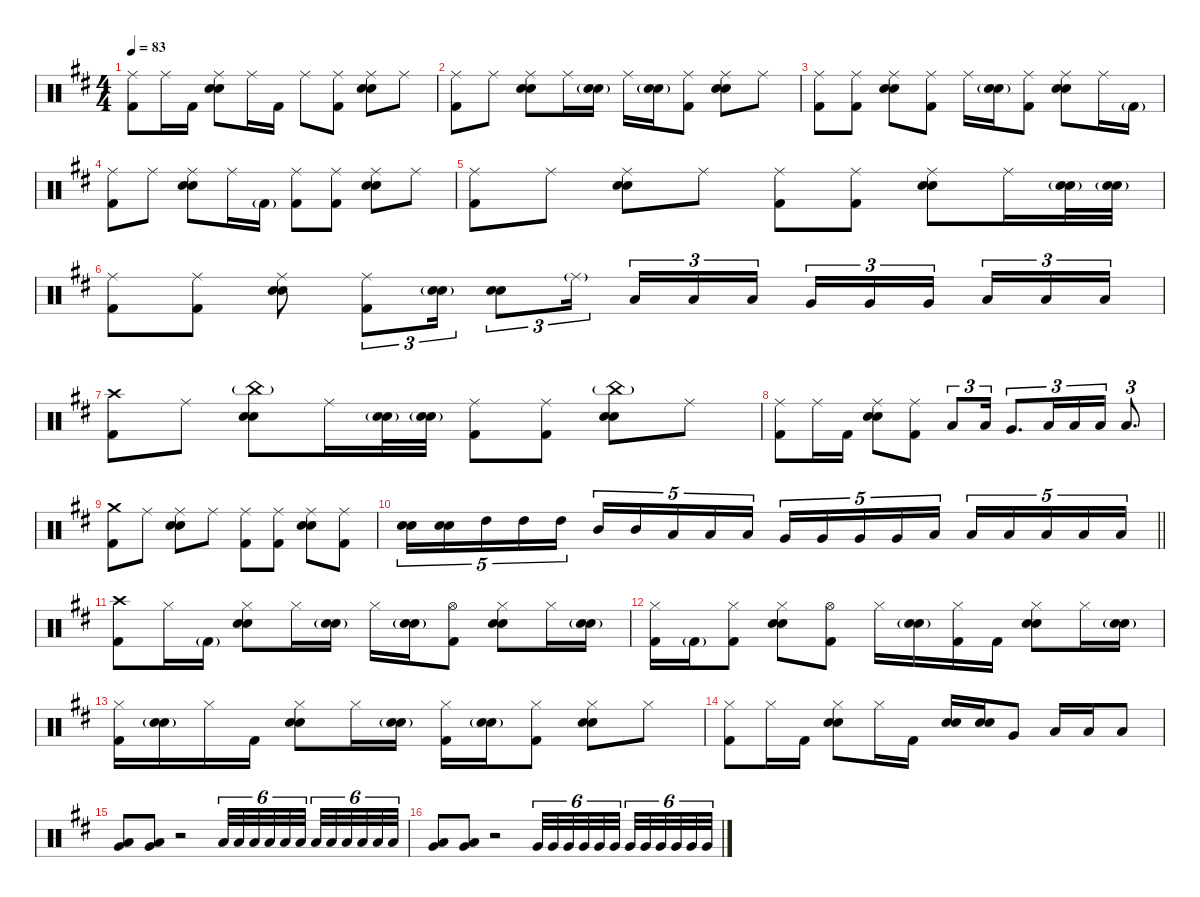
\defaultSystemsLayout 4
\hideDynamics
\bracketExtendMode nobrackets
\singleTrackTrackNamePolicy hidden
\multiTrackTrackNamePolicy hidden
\firstSystemTrackNameMode fullname
\firstSystemTrackNameOrientation horizontal
\otherSystemsTrackNameOrientation horizontal
\track ("Batterie" "drm.") {defaultSystemsLayout 4 instrument percussion}
\staff {score}
\articulation defaults
\ts (4 4)
\tempo 83
\clef neutral
\ks bminor
("Ride (middle)"{acc forcenatural} "Kick (hit) 2"{acc forcenatural}).8{dy f beam Down} "Ride (middle)"{acc forcenatural}.16{beam Down} "Kick (hit) 2"{acc forcenatural}.16{dy mf beam Down} ("Ride (middle)"{acc forcenatural} "Snare (hit) 2"{acc forcenatural} "Snare (hit) 2"{acc forcenatural}).8{dy f beam Down} "Ride (middle)"{acc forcenatural}.16{beam Down} "Kick (hit) 2"{acc forcenatural}.16{dy mf beam Down} "Ride (middle)"{acc forcenatural}.8{dy f beam Down} ("Ride (middle)"{acc forcenatural} "Kick (hit) 2"{acc forcenatural}).8{beam Down} ("Ride (middle)"{acc forcenatural} "Snare (hit) 2"{acc forcenatural} "Snare (hit) 2"{acc forcenatural}).8{beam Down} "Ride (middle)"{acc forcenatural}.8{beam Down} |
("Ride (middle)"{acc forcenatural} "Kick (hit) 2"{acc forcenatural}).8{beam Down} "Ride (middle)"{acc forcenatural}.8{beam Down} ("Ride (middle)"{acc forcenatural} "Snare (hit) 2"{acc forcenatural} "Snare (hit) 2"{acc forcenatural}).8{beam Down} "Ride (middle)"{acc forcenatural}.16{beam Down} ("Snare (hit) 2"{g acc forcenatural} "Snare (hit) 2"{g acc forcenatural}).16{dy mf beam Down} "Ride (middle)"{acc forcenatural}.16{dy f beam Down} ("Snare (hit) 2"{g acc forcenatural} "Snare (hit) 2"{g acc forcenatural}).16{dy mp beam Down} ("Ride (middle)"{acc forcenatural} "Kick (hit) 2"{acc forcenatural}).8{dy f beam Down} ("Ride (middle)"{acc forcenatural} "Snare (hit) 2"{acc forcenatural} "Snare (hit) 2"{acc forcenatural}).8{beam Down} "Ride (middle)"{acc forcenatural}.8{beam Down} |
("Ride (middle)"{acc forcenatural} "Kick (hit) 2"{acc forcenatural}).8{beam Down} ("Ride (middle)"{acc forcenatural} "Kick (hit) 2"{acc forcenatural}).8{beam Down} ("Ride (middle)"{acc forcenatural} "Snare (hit) 2"{acc forcenatural} "Snare (hit) 2"{acc forcenatural}).8{beam Down} ("Ride (middle)"{acc forcenatural} "Kick (hit) 2"{acc forcenatural}).8{beam Down} "Ride (middle)"{acc forcenatural}.16{beam Down} ("Snare (hit) 2"{g acc forcenatural} "Snare (hit) 2"{g acc forcenatural}).16{dy mp beam Down} ("Ride (middle)"{acc forcenatural} "Kick (hit) 2"{acc forcenatural}).8{dy f beam Down} ("Ride (middle)"{acc forcenatural} "Snare (hit) 2"{acc forcenatural} "Snare (hit) 2"{acc forcenatural}).8{beam Down} "Ride (middle)"{acc forcenatural}.16{beam Down} "Kick (hit) 2"{g acc forcenatural}.16{beam Down} |
("Ride (middle)"{acc forcenatural} "Kick (hit) 2"{acc forcenatural}).8{beam Down} "Ride (middle)"{acc forcenatural}.8{beam Down} ("Ride (middle)"{acc forcenatural} "Snare (hit) 2"{acc forcenatural} "Snare (hit) 2"{acc forcenatural}).8{beam Down} "Ride (middle)"{acc forcenatural}.16{beam Down} "Kick (hit) 2"{g acc forcenatural}.16{dy mf beam Down} ("Ride (middle)"{acc forcenatural} "Kick (hit) 2"{acc forcenatural}).8{dy f beam Down} ("Ride (middle)"{acc forcenatural} "Kick (hit) 2"{acc forcenatural}).8{beam Down} ("Ride (middle)"{acc forcenatural} "Snare (hit) 2"{acc forcenatural} "Snare (hit) 2"{acc forcenatural}).8{beam Down} "Ride (middle)"{acc forcenatural}.8{beam Down} |
("Ride (middle)"{acc forcenatural} "Kick (hit) 2"{acc forcenatural}).8{beam Down} "Ride (middle)"{acc forcenatural}.8{beam Down} ("Ride (middle)"{acc forcenatural} "Snare (hit) 2"{acc forcenatural} "Snare (hit) 2"{acc forcenatural}).8{beam Down} "Ride (middle)"{acc forcenatural}.8{beam Down} ("Ride (middle)"{acc forcenatural} "Kick (hit) 2"{acc forcenatural}).8{beam Down} ("Ride (middle)"{acc forcenatural} "Kick (hit) 2"{acc forcenatural}).8{beam Down} ("Ride (middle)"{acc forcenatural} "Snare (hit) 2"{acc forcenatural} "Snare (hit) 2"{acc forcenatural}).8{beam Down} "Ride (middle)"{acc forcenatural}.16{beam Down} ("Snare (hit) 2"{g acc forcenatural} "Snare (hit) 2"{g acc forcenatural}).32{dy mp beam Down} ("Snare (hit) 2"{g acc forcenatural} "Snare (hit) 2"{g acc forcenatural}).32{beam Down} |
("Ride (middle)"{acc forcenatural} "Kick (hit) 2"{acc forcenatural}).8{dy f beam Down} ("Ride (middle)"{acc forcenatural} "Kick (hit) 2"{acc forcenatural}).8{beam Down} ("Ride (middle)"{acc forcenatural} "Snare (hit) 2"{acc forcenatural} "Snare (hit) 2"{acc forcenatural}).8{beam Down} ("Ride (middle)"{acc forcenatural} "Kick (hit) 2"{acc forcenatural}).8{tu (3 2) beam Down} ("Snare (hit) 2"{g acc forcenatural} "Snare (hit) 2"{g acc forcenatural}).16{tu (3 2) beam Down} ("Snare (hit) 2"{acc forcenatural} "Snare (hit) 2"{acc forcenatural}).8{tu (3 2) beam Down} "Ride (middle)"{g acc forcenatural}.16{tu (3 2) beam Down} "Low Tom (hit)"{acc forcenatural}.16{tu (3 2) beam Up} "Low Tom (hit)"{acc forcenatural}.16{tu (3 2) beam Up} "Low Tom (hit)"{acc forcenatural}.16{tu (3 2) beam Up} "Very Low Tom (hit)"{acc forcenatural}.16{tu (3 2) beam Up} "Very Low Tom (hit)"{acc forcenatural}.16{tu (3 2) beam Up} "Very Low Tom (hit)"{acc forcenatural}.16{tu (3 2) beam Up} "Low Floor Tom (hit)"{acc forcenatural}.16{tu (3 2) beam Up} "Low Floor Tom (hit)"{acc forcenatural}.16{tu (3 2) beam Up} "Low Floor Tom (hit)"{acc forcenatural}.16{tu (3 2) beam Up} |
("Crash high (hit)"{acc forcenatural} "Kick (hit) 2"{acc forcenatural}).8{dy mf beam Down} "Ride (middle)"{acc forcenatural}.8{dy f beam Down} ("China (hit)"{g acc forcenatural} "Snare (hit) 2"{acc forcenatural} "Snare (hit) 2"{acc forcenatural}).8{dy mf beam Down} "Ride (middle)"{acc forcenatural}.16{dy f beam Down} ("Snare (hit) 2"{g acc forcenatural} "Snare (hit) 2"{g acc forcenatural}).32{dy mp beam Down} ("Snare (hit) 2"{g acc forcenatural} "Snare (hit) 2"{g acc forcenatural}).32{beam Down} ("Ride (middle)"{acc forcenatural} "Kick (hit) 2"{acc forcenatural}).8{dy f beam Down} ("Ride (middle)"{acc forcenatural} "Kick (hit) 2"{acc forcenatural}).8{beam Down} ("China (hit)"{g acc forcenatural} "Snare (hit) 2"{acc forcenatural} "Snare (hit) 2"{acc forcenatural}).8{dy mf beam Down} "Ride (middle)"{acc forcenatural}.8{dy f beam Down} |
("Ride (middle)"{acc forcenatural} "Kick (hit) 2"{acc forcenatural}).8{beam Down} "Ride (middle)"{acc forcenatural}.16{beam Down} "Kick (hit) 2"{acc forcenatural}.16{dy mf beam Down} ("Ride (middle)"{acc forcenatural} "Snare (hit) 2"{acc forcenatural} "Snare (hit) 2"{acc forcenatural}).8{dy f beam Down} ("Ride (middle)"{acc forcenatural} "Kick (hit) 2"{acc forcenatural}).8{beam Down} "Low Tom (hit)"{acc forcenatural}.8{tu (3 2) beam Up} "Low Tom (hit)"{acc forcenatural}.16{tu (3 2) beam Up} "Very Low Tom (hit)"{acc forcenatural}.8{d tu (3 2) beam Up} "Low Floor Tom (hit)"{acc forcenatural}.16{tu (3 2) beam Up} "Low Floor Tom (hit)"{acc forcenatural}.16{tu (3 2) beam Up} "Low Floor Tom (hit)"{acc forcenatural}.16{tu (3 2) beam Up} "Low Floor Tom (hit)"{acc forcenatural}.8{d tu (3 2) beam Up} |
("Crash medium (hit)"{acc forcenatural} "Kick (hit) 2"{acc forcenatural}).8{dy mf beam Down} "Ride (middle)"{acc forcenatural}.8{dy f beam Down} ("Ride (middle)"{acc forcenatural} "Snare (hit) 2"{acc forcenatural} "Snare (hit) 2"{acc forcenatural}).8{beam Down} "Ride (middle)"{acc forcenatural}.8{beam Down} ("Ride (middle)"{acc forcenatural} "Kick (hit) 2"{acc forcenatural}).8{beam Down} ("Ride (middle)"{acc forcenatural} "Kick (hit) 2"{acc forcenatural}).8{beam Down} ("Ride (middle)"{acc forcenatural} "Snare (hit) 2"{acc forcenatural} "Snare (hit) 2"{acc forcenatural}).8{beam Down} ("Ride (middle)"{acc forcenatural} "Kick (hit) 2"{acc forcenatural}).8{beam Down} |
\barLineRight lightlight
("Snare (hit) 2"{acc forcenatural} "Snare (hit) 2"{acc forcenatural}).16{tu (5 4) beam Down} ("Snare (hit) 2"{acc forcenatural} "Snare (hit) 2"{acc forcenatural}).16{tu (5 4) dy mf beam Down} "High Tom (hit)"{acc forcenatural}.16{tu (5 4) dy ff beam Down} "High Tom (hit)"{acc forcenatural}.16{tu (5 4) dy f beam Down} "High Tom (hit)"{acc forcenatural}.16{tu (5 4) beam Down} "Mid Tom (hit)"{acc forcenatural}.16{tu (5 4) dy ff beam Up} "Mid Tom (hit)"{acc forcenatural}.16{tu (5 4) dy f beam Up} "Low Tom (hit)"{acc forcenatural}.16{tu (5 4) dy ff beam Up} "Low Tom (hit)"{acc forcenatural}.16{tu (5 4) dy f beam Up} "Low Tom (hit)"{acc forcenatural}.16{tu (5 4) beam Up} "Very Low Tom (hit)"{acc forcenatural}.16{tu (5 4) dy ff beam Up} "Very Low Tom (hit)"{acc forcenatural}.16{tu (5 4) dy f beam Up} "Very Low Tom (hit)"{acc forcenatural}.16{tu (5 4) beam Up} "Very Low Tom (hit)"{acc forcenatural}.16{tu (5 4) beam Up} "Low Floor Tom (hit)"{acc forcenatural}.16{tu (5 4) dy ff beam Up} "Low Floor Tom (hit)"{acc forcenatural}.16{tu (5 4) dy f beam Up} "Low Floor Tom (hit)"{acc forcenatural}.16{tu (5 4) beam Up} "Low Floor Tom (hit)"{acc forcenatural}.16{tu (5 4) dy ff beam Up} "Low Floor Tom (hit)"{acc forcenatural}.16{tu (5 4) dy f beam Up} "Low Floor Tom (hit)"{acc forcenatural}.16{tu (5 4) beam Up} |
("Crash high (hit)"{acc forcenatural} "Kick (hit) 2"{acc forcenatural}).8{beam Down} "Hi-Hat (closed)"{acc forcenatural}.16{beam Down} "Kick (hit) 2"{g acc forcenatural}.16{beam Down} ("Hi-Hat (closed)"{acc forcenatural} "Snare (hit) 2"{acc forcenatural} "Snare (hit) 2"{acc forcenatural}).8{beam Down} "Hi-Hat (closed)"{acc forcenatural}.16{beam Down} ("Snare (hit) 2"{g acc forcenatural} "Snare (hit) 2"{g acc forcenatural}).16{dy mp beam Down} "Hi-Hat (closed)"{acc forcenatural}.16{dy f beam Down} ("Snare (hit) 2"{g acc forcenatural} "Snare (hit) 2"{g acc forcenatural}).16{dy mp beam Down} ("Hi-Hat (open)"{acc forcenatural} "Kick (hit) 2"{acc forcenatural}).8{beam Down} ("Hi-Hat (closed)"{acc forcenatural} "Snare (hit) 2"{acc forcenatural} "Snare (hit) 2"{acc forcenatural}).8{dy f beam Down} "Hi-Hat (closed)"{acc forcenatural}.16{beam Down} ("Snare (hit) 2"{g acc forcenatural} "Snare (hit) 2"{g acc forcenatural}).16{dy mf beam Down} |
("Hi-Hat (closed)"{acc forcenatural} "Kick (hit) 2"{acc forcenatural}).16{dy f beam Down} "Kick (hit) 2"{g acc forcenatural}.16{beam Down} ("Hi-Hat (closed)"{acc forcenatural} "Kick (hit) 2"{acc forcenatural}).8{beam Down} ("Hi-Hat (closed)"{acc forcenatural} "Snare (hit) 2"{acc forcenatural} "Snare (hit) 2"{acc forcenatural}).8{beam Down} ("Hi-Hat (open)"{acc forcenatural} "Kick (hit) 2"{acc forcenatural}).8{dy mp beam Down} "Hi-Hat (closed)"{acc forcenatural}.16{dy f beam Down} ("Snare (hit) 2"{g acc forcenatural} "Snare (hit) 2"{g acc forcenatural}).16{dy mf beam Down} ("Hi-Hat (closed)"{acc forcenatural} "Kick (hit) 2"{acc forcenatural}).16{dy f beam Down} "Kick (hit) 2"{acc forcenatural}.16{dy mf beam Down} ("Hi-Hat (closed)"{acc forcenatural} "Snare (hit) 2"{acc forcenatural} "Snare (hit) 2"{acc forcenatural}).8{dy f beam Down} "Hi-Hat (closed)"{acc forcenatural}.16{beam Down} ("Snare (hit) 2"{g acc forcenatural} "Snare (hit) 2"{g acc forcenatural}).16{dy mf beam Down} |
("Hi-Hat (closed)"{acc forcenatural} "Kick (hit) 2"{acc forcenatural}).16{dy f beam Down} ("Snare (hit) 2"{g acc forcenatural} "Snare (hit) 2"{g acc forcenatural}).16{dy mf beam Down} "Hi-Hat (closed)"{acc forcenatural}.16{dy f beam Down} "Kick (hit) 2"{acc forcenatural}.16{dy mf beam Down} ("Hi-Hat (closed)"{acc forcenatural} "Snare (hit) 2"{acc forcenatural} "Snare (hit) 2"{acc forcenatural}).8{dy f beam Down} "Hi-Hat (closed)"{acc forcenatural}.16{beam Down} ("Snare (hit) 2"{g acc forcenatural} "Snare (hit) 2"{g acc forcenatural}).16{dy mp beam Down} ("Hi-Hat (closed)"{acc forcenatural} "Kick (hit) 2"{acc forcenatural}).16{dy f beam Down} ("Snare (hit) 2"{g acc forcenatural} "Snare (hit) 2"{g acc forcenatural}).16{dy mp beam Down} ("Hi-Hat (closed)"{acc forcenatural} "Kick (hit) 2"{acc forcenatural}).8{dy f beam Down} ("Hi-Hat (closed)"{acc forcenatural} "Snare (hit) 2"{acc forcenatural} "Snare (hit) 2"{acc forcenatural}).8{beam Down} "Hi-Hat (closed)"{acc forcenatural}.8{beam Down} |
("Hi-Hat (closed)"{acc forcenatural} "Kick (hit) 2"{acc forcenatural}).8{beam Down} "Hi-Hat (closed)"{acc forcenatural}.16{beam Down} "Kick (hit) 2"{acc forcenatural}.16{dy mf beam Down} ("Hi-Hat (closed)"{acc forcenatural} "Snare (hit) 2"{acc forcenatural} "Snare (hit) 2"{acc forcenatural}).8{dy f beam Down} "Hi-Hat (closed)"{acc forcenatural}.16{beam Down} "Kick (hit) 2"{acc forcenatural}.16{dy mf beam Down} ("Snare (hit) 2"{acc forcenatural} "Snare (hit) 2"{acc forcenatural}).16{beam Up} ("Snare (hit) 2"{acc forcenatural} "Snare (hit) 2"{acc forcenatural}).16{beam Up} "Very Low Tom (hit)"{acc forcenatural}.8{dy f beam Up} "Low Floor Tom (hit)"{acc forcenatural}.16{beam Up} "Low Floor Tom (hit)"{acc forcenatural}.16{beam Up} "Low Floor Tom (hit)"{acc forcenatural}.8{beam Up} |
("Very Low Tom (hit)"{acc forcenatural} "Low Floor Tom (hit)"{acc forcenatural}).8{beam Up} ("Very Low Tom (hit)"{acc forcenatural} "Low Floor Tom (hit)"{acc forcenatural}).8{beam Up} r.2{beam Up} "Low Floor Tom (hit)"{acc forcenatural}.32{tu (6 4) beam Up} "Low Floor Tom (hit)"{acc forcenatural}.32{tu (6 4) dy mf beam Up} "Low Floor Tom (hit)"{acc forcenatural}.32{tu (6 4) dy mp beam Up} "Low Floor Tom (hit)"{acc forcenatural}.32{tu (6 4) dy p beam Up} "Low Floor Tom (hit)"{acc forcenatural}.32{tu (6 4) beam Up} "Low Floor Tom (hit)"{acc forcenatural}.32{tu (6 4) beam Up} "Low Floor Tom (hit)"{acc forcenatural}.32{tu (6 4) beam Up} "Low Floor Tom (hit)"{acc forcenatural}.32{tu (6 4) beam Up} "Low Floor Tom (hit)"{acc forcenatural}.32{tu (6 4) dy mp beam Up} "Low Floor Tom (hit)"{acc forcenatural}.32{tu (6 4) dy mf beam Up} "Low Floor Tom (hit)"{acc forcenatural}.32{tu (6 4) beam Up} "Low Floor Tom (hit)"{acc forcenatural}.32{tu (6 4) dy f beam Up} |
("Very Low Tom (hit)"{acc forcenatural} "Low Floor Tom (hit)"{acc forcenatural}).8{beam Up} ("Very Low Tom (hit)"{acc forcenatural} "Low Floor Tom (hit)"{acc forcenatural}).8{beam Up} r.2{beam Up} "Very Low Tom (hit)"{acc forcenatural}.32{tu (6 4) beam Up} "Very Low Tom (hit)"{acc forcenatural}.32{tu (6 4) dy mf beam Up} "Very Low Tom (hit)"{acc forcenatural}.32{tu (6 4) dy mp beam Up} "Very Low Tom (hit)"{acc forcenatural}.32{tu (6 4) dy p beam Up} "Very Low Tom (hit)"{acc forcenatural}.32{tu (6 4) beam Up} "Very Low Tom (hit)"{acc forcenatural}.32{tu (6 4) beam Up} "Very Low Tom (hit)"{acc forcenatural}.32{tu (6 4) beam Up} "Very Low Tom (hit)"{acc forcenatural}.32{tu (6 4) beam Up} "Very Low Tom (hit)"{acc forcenatural}.32{tu (6 4) dy mp beam Up} "Very Low Tom (hit)"{acc forcenatural}.32{tu (6 4) dy mf beam Up} "Very Low Tom (hit)"{acc forcenatural}.32{tu (6 4) beam Up} "Very Low Tom (hit)"{acc forcenatural}.32{tu (6 4) dy f beam Up}
